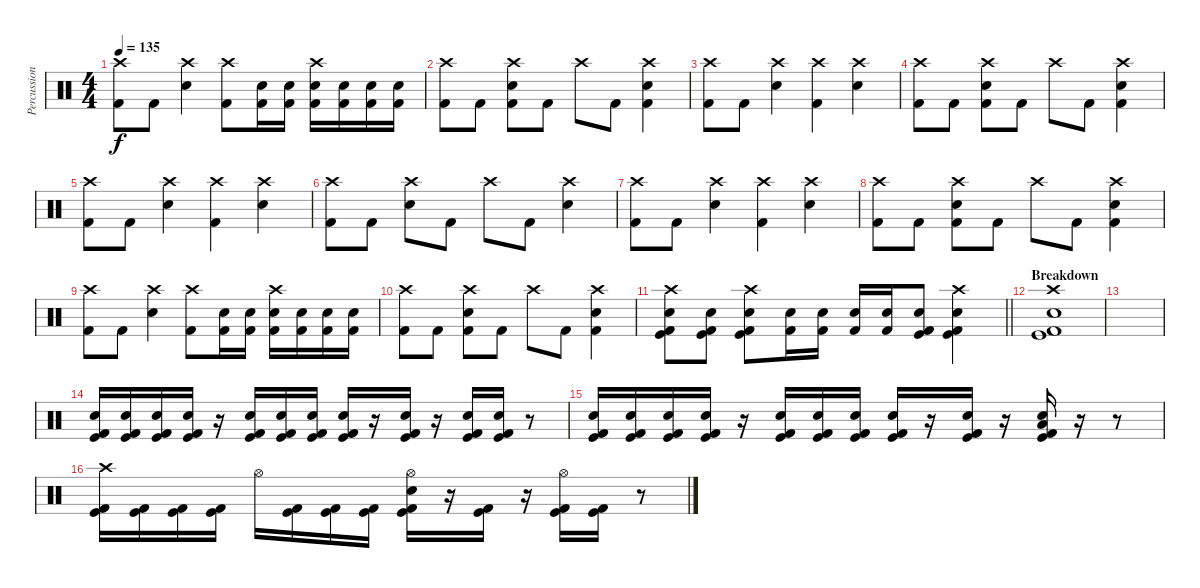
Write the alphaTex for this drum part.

\track ("Percussion" "Percussion") {instrument percussion}
\staff {score}
\articulation defaults
\ts (4 4)
\tempo 135
\clef neutral
\ks c
("Crash high (hit)" "Kick (hit) 2").8{dy f} "Kick (hit) 2".8 ("Crash high (hit)" "Electric Snare (hit)").4 ("Crash high (hit)" "Kick (hit) 2").8 ("Electric Snare (hit)" "Kick (hit) 2").16 ("Electric Snare (hit)" "Kick (hit) 2").16 ("Crash high (hit)" "Electric Snare (hit)" "Kick (hit) 2").16 ("Electric Snare (hit)" "Kick (hit) 2").16 ("Electric Snare (hit)" "Kick (hit) 2").16 ("Electric Snare (hit)" "Kick (hit) 2").16 |
("Crash high (hit)" "Kick (hit) 2").8 "Kick (hit) 2".8 ("Crash high (hit)" "Electric Snare (hit)" "Kick (hit) 2").8 "Kick (hit) 2".8 "Crash high (hit)".8 "Kick (hit) 2".8 ("Crash high (hit)" "Electric Snare (hit)" "Kick (hit) 2").4 |
("Crash high (hit)" "Kick (hit) 2").8 "Kick (hit) 2".8 ("Crash high (hit)" "Electric Snare (hit)").4 ("Crash high (hit)" "Kick (hit) 2").4 ("Crash high (hit)" "Electric Snare (hit)").4 |
("Crash high (hit)" "Kick (hit) 2").8 "Kick (hit) 2".8 ("Crash high (hit)" "Electric Snare (hit)" "Kick (hit) 2").8 "Kick (hit) 2".8 "Crash high (hit)".8 "Kick (hit) 2".8 ("Crash high (hit)" "Electric Snare (hit)" "Kick (hit) 2").4 |
("Crash high (hit)" "Kick (hit) 2").8 "Kick (hit) 2".8 ("Crash high (hit)" "Electric Snare (hit)").4 ("Crash high (hit)" "Kick (hit) 2").4 ("Crash high (hit)" "Electric Snare (hit)").4 |
("Crash high (hit)" "Kick (hit) 2").8 "Kick (hit) 2".8 ("Crash high (hit)" "Electric Snare (hit)").8 "Kick (hit) 2".8 "Crash high (hit)".8 "Kick (hit) 2".8 ("Crash high (hit)" "Electric Snare (hit)").4 |
("Crash high (hit)" "Kick (hit) 2").8 "Kick (hit) 2".8 ("Crash high (hit)" "Electric Snare (hit)").4 ("Crash high (hit)" "Kick (hit) 2").4 ("Crash high (hit)" "Electric Snare (hit)").4 |
("Crash high (hit)" "Kick (hit) 2").8 "Kick (hit) 2".8 ("Crash high (hit)" "Electric Snare (hit)" "Kick (hit) 2").8 "Kick (hit) 2".8 "Crash high (hit)".8 "Kick (hit) 2".8 ("Crash high (hit)" "Electric Snare (hit)" "Kick (hit) 2").4 |
("Crash high (hit)" "Kick (hit) 2").8 "Kick (hit) 2".8 ("Crash high (hit)" "Electric Snare (hit)").4 ("Crash high (hit)" "Kick (hit) 2").8 ("Electric Snare (hit)" "Kick (hit) 2").16 ("Electric Snare (hit)" "Kick (hit) 2").16 ("Crash high (hit)" "Electric Snare (hit)" "Kick (hit) 2").16 ("Electric Snare (hit)" "Kick (hit) 2").16 ("Electric Snare (hit)" "Kick (hit) 2").16 ("Electric Snare (hit)" "Kick (hit) 2").16 |
("Crash high (hit)" "Kick (hit) 2").8 "Kick (hit) 2".8 ("Crash high (hit)" "Electric Snare (hit)" "Kick (hit) 2").8 "Kick (hit) 2".8 "Crash high (hit)".8 "Kick (hit) 2".8 ("Crash high (hit)" "Electric Snare (hit)" "Kick (hit) 2").4 |
\barLineRight lightlight
("Crash high (hit)" "Electric Snare (hit)" "Kick (hit)" "Kick (hit) 2").8 ("Electric Snare (hit)" "Kick (hit)" "Kick (hit) 2").8 ("Crash high (hit)" "Electric Snare (hit)" "Kick (hit)" "Kick (hit) 2").8 ("Electric Snare (hit)" "Kick (hit) 2").16 ("Electric Snare (hit)" "Kick (hit) 2").16 ("Electric Snare (hit)" "Kick (hit) 2").16 ("Electric Snare (hit)" "Kick (hit) 2").16 ("Electric Snare (hit)" "Kick (hit)" "Kick (hit) 2").8 ("Crash high (hit)" "Electric Snare (hit)" "Kick (hit)" "Kick (hit) 2").4 |
\section ("" "Breakdown")
("Crash high (hit)" "Electric Snare (hit)" "Kick (hit)" "Kick (hit) 2").1 |
|
("Electric Snare (hit)" "Kick (hit)" "Kick (hit) 2").16 ("Electric Snare (hit)" "Kick (hit)" "Kick (hit) 2").16 ("Electric Snare (hit)" "Kick (hit)" "Kick (hit) 2").16 ("Electric Snare (hit)" "Kick (hit)" "Kick (hit) 2").16 r.16 ("Electric Snare (hit)" "Kick (hit)" "Kick (hit) 2").16 ("Electric Snare (hit)" "Kick (hit)" "Kick (hit) 2").16 ("Electric Snare (hit)" "Kick (hit)" "Kick (hit) 2").16 ("Electric Snare (hit)" "Kick (hit)" "Kick (hit) 2").16 r.16 ("Electric Snare (hit)" "Kick (hit)" "Kick (hit) 2").16 r.16 ("Electric Snare (hit)" "Kick (hit)" "Kick (hit) 2").16 ("Electric Snare (hit)" "Kick (hit)" "Kick (hit) 2").16 r.8 |
("Electric Snare (hit)" "Kick (hit)" "Kick (hit) 2").16 ("Electric Snare (hit)" "Kick (hit)" "Kick (hit) 2").16 ("Electric Snare (hit)" "Kick (hit)" "Kick (hit) 2").16 ("Electric Snare (hit)" "Kick (hit)" "Kick (hit) 2").16 r.16 ("Electric Snare (hit)" "Kick (hit)" "Kick (hit) 2").16 ("Electric Snare (hit)" "Kick (hit)" "Kick (hit) 2").16 ("Electric Snare (hit)" "Kick (hit)" "Kick (hit) 2").16 ("Electric Snare (hit)" "Kick (hit)" "Kick (hit) 2").16 r.16 ("Electric Snare (hit)" "Kick (hit)" "Kick (hit) 2").16 r.16 ("Electric Snare (hit)" "Low Floor Tom (hit)" "Kick (hit)" "Kick (hit) 2").16 r.16 r.8 |
("Crash high (hit)" "Kick (hit)" "Kick (hit) 2").16 ("Kick (hit)" "Kick (hit) 2").16 ("Kick (hit)" "Kick (hit) 2").16 ("Kick (hit)" "Kick (hit) 2").16 "Hi-Hat (open)".16 ("Kick (hit)" "Kick (hit) 2").16 ("Kick (hit)" "Kick (hit) 2").16 ("Kick (hit)" "Kick (hit) 2").16 ("Hi-Hat (open)" "Electric Snare (hit)" "Kick (hit)" "Kick (hit) 2").16 r.16 ("Kick (hit)" "Kick (hit) 2").16 r.16 ("Hi-Hat (open)" "Kick (hit)" "Kick (hit) 2").16 ("Kick (hit)" "Kick (hit) 2").16 r.8
